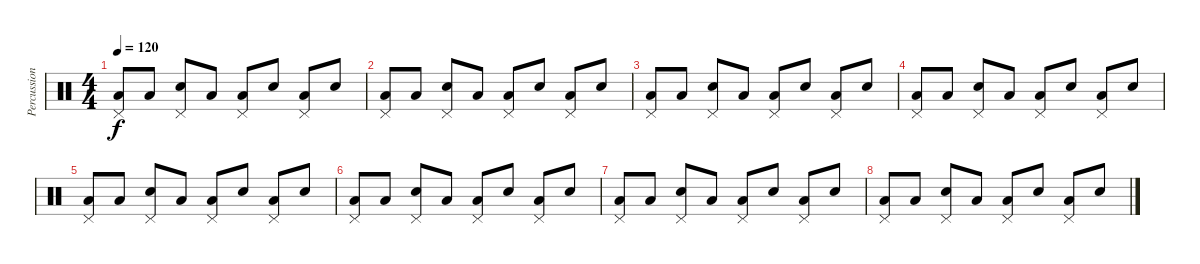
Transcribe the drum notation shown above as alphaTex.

\track ("Percussions" "Percussion") {instrument percussion}
\staff {score}
\articulation defaults
\ts (4 4)
\tempo 120
\clef neutral
\ks c
("Low Floor Tom (hit)" "Pedal Hi-Hat (hit)").8{dy f} "Low Floor Tom (hit)".8 ("Electric Snare (hit)" "Pedal Hi-Hat (hit)").8 "Low Floor Tom (hit)".8 ("Low Floor Tom (hit)" "Pedal Hi-Hat (hit)").8 "Electric Snare (hit)".8 ("Low Floor Tom (hit)" "Pedal Hi-Hat (hit)").8 "Electric Snare (hit)".8 |
("Low Floor Tom (hit)" "Pedal Hi-Hat (hit)").8 "Low Floor Tom (hit)".8 ("Electric Snare (hit)" "Pedal Hi-Hat (hit)").8 "Low Floor Tom (hit)".8 ("Low Floor Tom (hit)" "Pedal Hi-Hat (hit)").8 "Electric Snare (hit)".8 ("Low Floor Tom (hit)" "Pedal Hi-Hat (hit)").8 "Electric Snare (hit)".8 |
("Low Floor Tom (hit)" "Pedal Hi-Hat (hit)").8 "Low Floor Tom (hit)".8 ("Electric Snare (hit)" "Pedal Hi-Hat (hit)").8 "Low Floor Tom (hit)".8 ("Low Floor Tom (hit)" "Pedal Hi-Hat (hit)").8 "Electric Snare (hit)".8 ("Low Floor Tom (hit)" "Pedal Hi-Hat (hit)").8 "Electric Snare (hit)".8 |
("Low Floor Tom (hit)" "Pedal Hi-Hat (hit)").8 "Low Floor Tom (hit)".8 ("Electric Snare (hit)" "Pedal Hi-Hat (hit)").8 "Low Floor Tom (hit)".8 ("Low Floor Tom (hit)" "Pedal Hi-Hat (hit)").8 "Electric Snare (hit)".8 ("Low Floor Tom (hit)" "Pedal Hi-Hat (hit)").8 "Electric Snare (hit)".8 |
("Low Floor Tom (hit)" "Pedal Hi-Hat (hit)").8 "Low Floor Tom (hit)".8 ("Electric Snare (hit)" "Pedal Hi-Hat (hit)").8 "Low Floor Tom (hit)".8 ("Low Floor Tom (hit)" "Pedal Hi-Hat (hit)").8 "Electric Snare (hit)".8 ("Low Floor Tom (hit)" "Pedal Hi-Hat (hit)").8 "Electric Snare (hit)".8 |
("Low Floor Tom (hit)" "Pedal Hi-Hat (hit)").8 "Low Floor Tom (hit)".8 ("Electric Snare (hit)" "Pedal Hi-Hat (hit)").8 "Low Floor Tom (hit)".8 ("Low Floor Tom (hit)" "Pedal Hi-Hat (hit)").8 "Electric Snare (hit)".8 ("Low Floor Tom (hit)" "Pedal Hi-Hat (hit)").8 "Electric Snare (hit)".8 |
("Low Floor Tom (hit)" "Pedal Hi-Hat (hit)").8 "Low Floor Tom (hit)".8 ("Electric Snare (hit)" "Pedal Hi-Hat (hit)").8 "Low Floor Tom (hit)".8 ("Low Floor Tom (hit)" "Pedal Hi-Hat (hit)").8 "Electric Snare (hit)".8 ("Low Floor Tom (hit)" "Pedal Hi-Hat (hit)").8 "Electric Snare (hit)".8 |
("Low Floor Tom (hit)" "Pedal Hi-Hat (hit)").8 "Low Floor Tom (hit)".8 ("Electric Snare (hit)" "Pedal Hi-Hat (hit)").8 "Low Floor Tom (hit)".8 ("Low Floor Tom (hit)" "Pedal Hi-Hat (hit)").8 "Electric Snare (hit)".8 ("Low Floor Tom (hit)" "Pedal Hi-Hat (hit)").8 "Electric Snare (hit)".8
